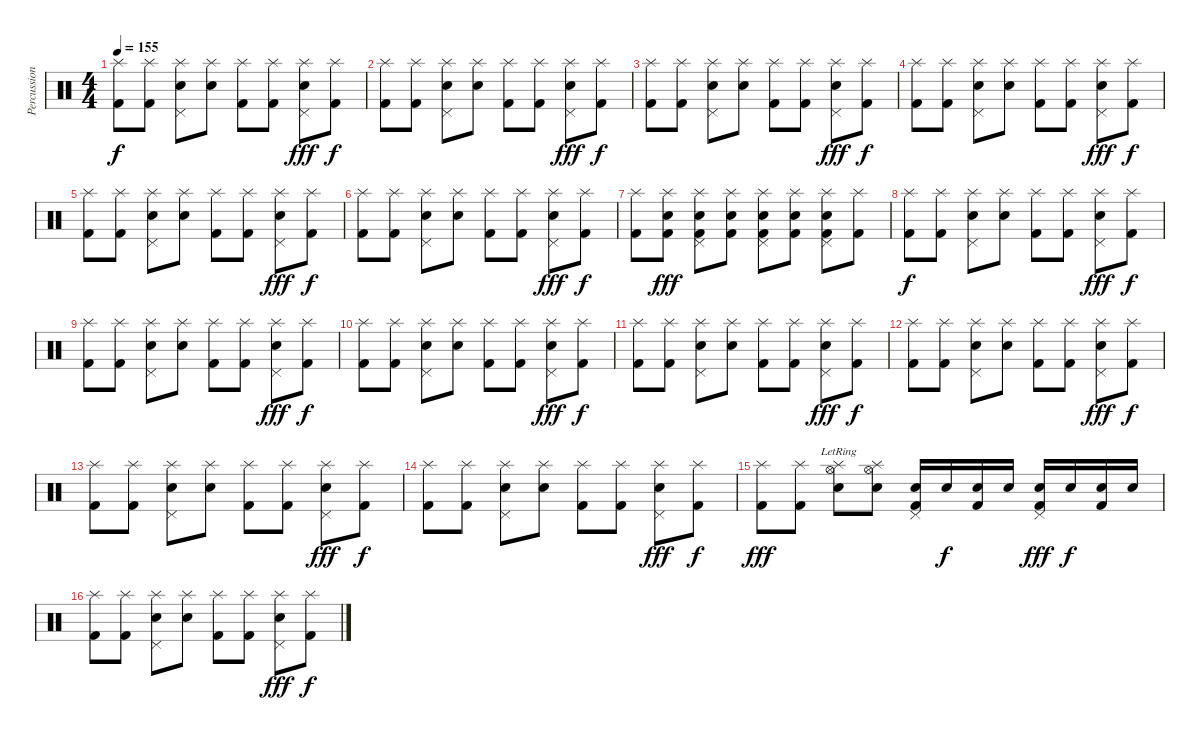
\track ("Percussion" "Percussion") {instrument percussion}
\staff {score}
\articulation defaults
\ts (4 4)
\tempo 155
\clef neutral
\ks c
("Splash (hit)" "Kick (hit) 2").8{dy f} ("Splash (hit)" "Kick (hit) 2").8 ("Splash (hit)" "Pedal Hi-Hat (hit)" "Snare (hit) 2").8 ("Splash (hit)" "Snare (hit) 2").8 ("Splash (hit)" "Kick (hit) 2").8 ("Splash (hit)" "Kick (hit) 2").8 ("Splash (hit)" "Pedal Hi-Hat (hit)" "Snare (hit) 2").8{dy fff} ("Splash (hit)" "Kick (hit) 2").8{dy f} |
("Splash (hit)" "Kick (hit) 2").8 ("Splash (hit)" "Kick (hit) 2").8 ("Splash (hit)" "Pedal Hi-Hat (hit)" "Snare (hit) 2").8 ("Splash (hit)" "Snare (hit) 2").8 ("Splash (hit)" "Kick (hit) 2").8 ("Splash (hit)" "Kick (hit) 2").8 ("Splash (hit)" "Pedal Hi-Hat (hit)" "Snare (hit) 2").8{dy fff} ("Splash (hit)" "Kick (hit) 2").8{dy f} |
("Splash (hit)" "Kick (hit) 2").8 ("Splash (hit)" "Kick (hit) 2").8 ("Splash (hit)" "Pedal Hi-Hat (hit)" "Snare (hit) 2").8 ("Splash (hit)" "Snare (hit) 2").8 ("Splash (hit)" "Kick (hit) 2").8 ("Splash (hit)" "Kick (hit) 2").8 ("Splash (hit)" "Pedal Hi-Hat (hit)" "Snare (hit) 2").8{dy fff} ("Splash (hit)" "Kick (hit) 2").8{dy f} |
("Splash (hit)" "Kick (hit) 2").8 ("Splash (hit)" "Kick (hit) 2").8 ("Splash (hit)" "Pedal Hi-Hat (hit)" "Snare (hit) 2").8 ("Splash (hit)" "Snare (hit) 2").8 ("Splash (hit)" "Kick (hit) 2").8 ("Splash (hit)" "Kick (hit) 2").8 ("Splash (hit)" "Pedal Hi-Hat (hit)" "Snare (hit) 2").8{dy fff} ("Splash (hit)" "Kick (hit) 2").8{dy f} |
("Splash (hit)" "Kick (hit) 2").8 ("Splash (hit)" "Kick (hit) 2").8 ("Splash (hit)" "Pedal Hi-Hat (hit)" "Snare (hit) 2").8 ("Splash (hit)" "Snare (hit) 2").8 ("Splash (hit)" "Kick (hit) 2").8 ("Splash (hit)" "Kick (hit) 2").8 ("Splash (hit)" "Pedal Hi-Hat (hit)" "Snare (hit) 2").8{dy fff} ("Splash (hit)" "Kick (hit) 2").8{dy f} |
("Splash (hit)" "Kick (hit) 2").8 ("Splash (hit)" "Kick (hit) 2").8 ("Splash (hit)" "Pedal Hi-Hat (hit)" "Snare (hit) 2").8 ("Splash (hit)" "Snare (hit) 2").8 ("Splash (hit)" "Kick (hit) 2").8 ("Splash (hit)" "Kick (hit) 2").8 ("Splash (hit)" "Pedal Hi-Hat (hit)" "Snare (hit) 2").8{dy fff} ("Splash (hit)" "Kick (hit) 2").8{dy f} |
("Splash (hit)" "Kick (hit) 2").8 ("Splash (hit)" "Snare (hit) 2" "Kick (hit) 2").8{dy fff} ("Splash (hit)" "Pedal Hi-Hat (hit)" "Snare (hit) 2" "Kick (hit) 2").8 ("Splash (hit)" "Snare (hit) 2" "Kick (hit) 2").8 ("Splash (hit)" "Pedal Hi-Hat (hit)" "Snare (hit) 2" "Kick (hit) 2").8 ("Splash (hit)" "Snare (hit) 2" "Kick (hit) 2").8 ("Splash (hit)" "Pedal Hi-Hat (hit)" "Snare (hit) 2" "Kick (hit) 2").8 ("Splash (hit)" "Kick (hit) 2").8 |
("Splash (hit)" "Kick (hit) 2").8{dy f} ("Splash (hit)" "Kick (hit) 2").8 ("Splash (hit)" "Pedal Hi-Hat (hit)" "Snare (hit) 2").8 ("Splash (hit)" "Snare (hit) 2").8 ("Splash (hit)" "Kick (hit) 2").8 ("Splash (hit)" "Kick (hit) 2").8 ("Splash (hit)" "Pedal Hi-Hat (hit)" "Snare (hit) 2").8{dy fff} ("Splash (hit)" "Kick (hit) 2").8{dy f} |
("Splash (hit)" "Kick (hit) 2").8 ("Splash (hit)" "Kick (hit) 2").8 ("Splash (hit)" "Pedal Hi-Hat (hit)" "Snare (hit) 2").8 ("Splash (hit)" "Snare (hit) 2").8 ("Splash (hit)" "Kick (hit) 2").8 ("Splash (hit)" "Kick (hit) 2").8 ("Splash (hit)" "Pedal Hi-Hat (hit)" "Snare (hit) 2").8{dy fff} ("Splash (hit)" "Kick (hit) 2").8{dy f} |
("Splash (hit)" "Kick (hit) 2").8 ("Splash (hit)" "Kick (hit) 2").8 ("Splash (hit)" "Pedal Hi-Hat (hit)" "Snare (hit) 2").8 ("Splash (hit)" "Snare (hit) 2").8 ("Splash (hit)" "Kick (hit) 2").8 ("Splash (hit)" "Kick (hit) 2").8 ("Splash (hit)" "Pedal Hi-Hat (hit)" "Snare (hit) 2").8{dy fff} ("Splash (hit)" "Kick (hit) 2").8{dy f} |
("Splash (hit)" "Kick (hit) 2").8 ("Splash (hit)" "Kick (hit) 2").8 ("Splash (hit)" "Pedal Hi-Hat (hit)" "Snare (hit) 2").8 ("Splash (hit)" "Snare (hit) 2").8 ("Splash (hit)" "Kick (hit) 2").8 ("Splash (hit)" "Kick (hit) 2").8 ("Splash (hit)" "Pedal Hi-Hat (hit)" "Snare (hit) 2").8{dy fff} ("Splash (hit)" "Kick (hit) 2").8{dy f} |
("Splash (hit)" "Kick (hit) 2").8 ("Splash (hit)" "Kick (hit) 2").8 ("Splash (hit)" "Pedal Hi-Hat (hit)" "Snare (hit) 2").8 ("Splash (hit)" "Snare (hit) 2").8 ("Splash (hit)" "Kick (hit) 2").8 ("Splash (hit)" "Kick (hit) 2").8 ("Splash (hit)" "Pedal Hi-Hat (hit)" "Snare (hit) 2").8{dy fff} ("Splash (hit)" "Kick (hit) 2").8{dy f} |
("Splash (hit)" "Kick (hit) 2").8 ("Splash (hit)" "Kick (hit) 2").8 ("Splash (hit)" "Pedal Hi-Hat (hit)" "Snare (hit) 2").8 ("Splash (hit)" "Snare (hit) 2").8 ("Splash (hit)" "Kick (hit) 2").8 ("Splash (hit)" "Kick (hit) 2").8 ("Splash (hit)" "Pedal Hi-Hat (hit)" "Snare (hit) 2").8{dy fff} ("Splash (hit)" "Kick (hit) 2").8{dy f} |
("Splash (hit)" "Kick (hit) 2").8 ("Splash (hit)" "Kick (hit) 2").8 ("Splash (hit)" "Pedal Hi-Hat (hit)" "Snare (hit) 2").8 ("Splash (hit)" "Snare (hit) 2").8 ("Splash (hit)" "Kick (hit) 2").8 ("Splash (hit)" "Kick (hit) 2").8 ("Splash (hit)" "Pedal Hi-Hat (hit)" "Snare (hit) 2").8{dy fff} ("Splash (hit)" "Kick (hit) 2").8{dy f} |
("Splash (hit)" "Kick (hit) 2").8{dy fff} ("Splash (hit)" "Kick (hit) 2").8 ("Splash (hit)"{lr} "Hi-Hat (open)" "Snare (hit) 2").8 ("Splash (hit)" "Hi-Hat (open)" "Snare (hit) 2").8 ("Pedal Hi-Hat (hit)" "Snare (hit) 2" "Kick (hit) 2").16 "Snare (hit) 2".16{dy f} ("Snare (hit) 2" "Kick (hit) 2").16 "Snare (hit) 2".16 ("Pedal Hi-Hat (hit)" "Snare (hit) 2" "Kick (hit) 2").16{dy fff} "Snare (hit) 2".16{dy f} ("Snare (hit) 2" "Kick (hit) 2").16 "Snare (hit) 2".16 |
("Splash (hit)" "Kick (hit) 2").8 ("Splash (hit)" "Kick (hit) 2").8 ("Splash (hit)" "Pedal Hi-Hat (hit)" "Snare (hit) 2").8 ("Splash (hit)" "Snare (hit) 2").8 ("Splash (hit)" "Kick (hit) 2").8 ("Splash (hit)" "Kick (hit) 2").8 ("Splash (hit)" "Pedal Hi-Hat (hit)" "Snare (hit) 2").8{dy fff} ("Splash (hit)" "Kick (hit) 2").8{dy f}
